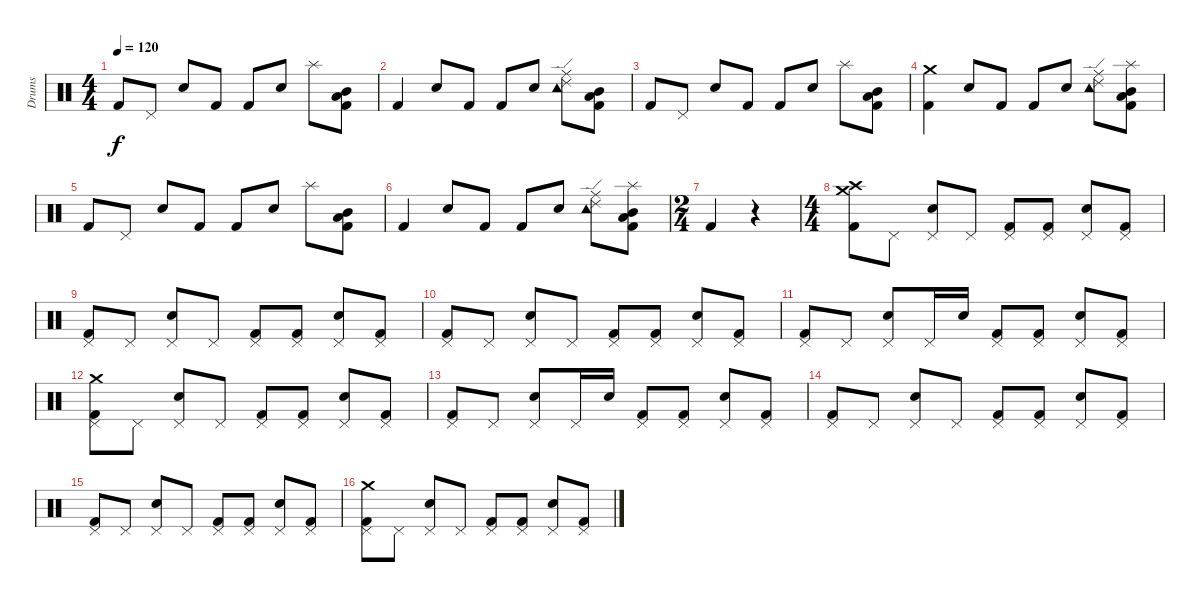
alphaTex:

\track ("Drums" "Drums") {instrument percussion}
\staff {score}
\articulation defaults
\ts (4 4)
\tempo 120
\clef neutral
\ks c "Kick (hit) 2".8{dy f} "Pedal Hi-Hat (hit)".8 "Snare (hit) 2".8 "Kick (hit) 2".8 "Kick (hit) 2".8 "Snare (hit) 2".8 "Splash (hit)".8
("Low Tom (hit)" "Mid Tom (hit)" "Kick (hit) 2").8 |
"Kick (hit) 2".4 "Snare (hit) 2".8 "Kick (hit) 2".8 "Kick (hit) 2".8 "Snare (hit) 2".8 ("Ride (edge) 2" "Tambourine (hit)" "Ride (middle)").8 ("Mid Tom (hit)" "Low Tom (hit)" "Kick (hit) 2").8 |
"Kick (hit) 2".8 "Pedal Hi-Hat (hit)".8 "Snare (hit) 2".8 "Kick (hit) 2".8 "Kick (hit) 2".8 "Snare (hit) 2".8 "Splash (hit)".8 ("Low Tom (hit)" "Mid Tom (hit)" "Kick (hit) 2").8 |
("Kick (hit) 2" "Crash medium (hit)").4 "Snare (hit) 2".8 "Kick (hit) 2".8 "Kick (hit) 2".8 "Snare (hit) 2".8 ("Tambourine (hit)" "Ride (middle)" "Ride (edge) 2").8 ("Kick (hit) 2" "Low Tom (hit)" "Mid Tom (hit)" "Splash (hit)").8 |
"Kick (hit) 2".8 "Pedal Hi-Hat (hit)".8 "Snare (hit) 2".8 "Kick (hit) 2".8 "Kick (hit) 2".8 "Snare (hit) 2".8 "Splash (hit)".8 ("Low Tom (hit)" "Mid Tom (hit)" "Kick (hit) 2").8 |
"Kick (hit) 2".4 "Snare (hit) 2".8 "Kick (hit) 2".8 "Kick (hit) 2".8 "Snare (hit) 2".8 ("Ride (edge) 2" "Tambourine (hit)" "Ride (middle)").8 ("Splash (hit)" "Kick (hit) 2" "Mid Tom (hit)" "Low Tom (hit)").8 |
\ts (2 4)
"Kick (hit) 2".4 r.4 |
\ts (4 4)
("Crash high (hit)" "Crash medium (hit)" "Kick (hit) 2").8 "Pedal Hi-Hat (hit)".8 ("Pedal Hi-Hat (hit)" "Snare (hit) 2").8 "Pedal Hi-Hat (hit)".8 ("Pedal Hi-Hat (hit)" "Kick (hit) 2").8 ("Pedal Hi-Hat (hit)" "Kick (hit) 2").8 ("Pedal Hi-Hat (hit)" "Snare (hit) 2").8 ("Pedal Hi-Hat (hit)" "Kick (hit) 2").8 |
("Pedal Hi-Hat (hit)" "Kick (hit) 2").8 "Pedal Hi-Hat (hit)".8 ("Pedal Hi-Hat (hit)" "Snare (hit) 2").8 "Pedal Hi-Hat (hit)".8 ("Pedal Hi-Hat (hit)" "Kick (hit) 2").8 ("Pedal Hi-Hat (hit)" "Kick (hit) 2").8 ("Pedal Hi-Hat (hit)" "Snare (hit) 2").8 ("Pedal Hi-Hat (hit)" "Kick (hit) 2").8 |
("Pedal Hi-Hat (hit)" "Kick (hit) 2").8 "Pedal Hi-Hat (hit)".8 ("Pedal Hi-Hat (hit)" "Snare (hit) 2").8 "Pedal Hi-Hat (hit)".8 ("Pedal Hi-Hat (hit)" "Kick (hit) 2").8 ("Pedal Hi-Hat (hit)" "Kick (hit) 2").8 ("Pedal Hi-Hat (hit)" "Snare (hit) 2").8 ("Pedal Hi-Hat (hit)" "Kick (hit) 2").8 |
("Pedal Hi-Hat (hit)" "Kick (hit) 2").8 "Pedal Hi-Hat (hit)".8 ("Pedal Hi-Hat (hit)" "Snare (hit) 2").8 "Pedal Hi-Hat (hit)".16 "Snare (hit) 2".16 ("Pedal Hi-Hat (hit)" "Kick (hit) 2").8 ("Pedal Hi-Hat (hit)" "Kick (hit) 2").8 ("Pedal Hi-Hat (hit)" "Snare (hit) 2").8 ("Pedal Hi-Hat (hit)" "Kick (hit) 2").8 |
("Pedal Hi-Hat (hit)" "Crash medium (hit)" "Kick (hit) 2").8 "Pedal Hi-Hat (hit)".8 ("Pedal Hi-Hat (hit)" "Snare (hit) 2").8 "Pedal Hi-Hat (hit)".8 ("Pedal Hi-Hat (hit)" "Kick (hit) 2").8 ("Pedal Hi-Hat (hit)" "Kick (hit) 2").8 ("Pedal Hi-Hat (hit)" "Snare (hit) 2").8 ("Pedal Hi-Hat (hit)" "Kick (hit) 2").8 |
("Pedal Hi-Hat (hit)" "Kick (hit) 2").8 "Pedal Hi-Hat (hit)".8 ("Pedal Hi-Hat (hit)" "Snare (hit) 2").8 "Pedal Hi-Hat (hit)".16 "Snare (hit) 2".16 ("Pedal Hi-Hat (hit)" "Kick (hit) 2").8 ("Pedal Hi-Hat (hit)" "Kick (hit) 2").8 ("Pedal Hi-Hat (hit)" "Snare (hit) 2").8 ("Pedal Hi-Hat (hit)" "Kick (hit) 2").8 |
("Kick (hit) 2" "Pedal Hi-Hat (hit)").8 "Pedal Hi-Hat (hit)".8 ("Snare (hit) 2" "Pedal Hi-Hat (hit)").8 "Pedal Hi-Hat (hit)".8 ("Kick (hit) 2" "Pedal Hi-Hat (hit)").8 ("Kick (hit) 2" "Pedal Hi-Hat (hit)").8 ("Snare (hit) 2" "Pedal Hi-Hat (hit)").8 ("Kick (hit) 2" "Pedal Hi-Hat (hit)").8 |
("Kick (hit) 2" "Pedal Hi-Hat (hit)").8 "Pedal Hi-Hat (hit)".8 ("Snare (hit) 2" "Pedal Hi-Hat (hit)").8 "Pedal Hi-Hat (hit)".8 ("Kick (hit) 2" "Pedal Hi-Hat (hit)").8 ("Kick (hit) 2" "Pedal Hi-Hat (hit)").8 ("Snare (hit) 2" "Pedal Hi-Hat (hit)").8 ("Kick (hit) 2" "Pedal Hi-Hat (hit)").8 |
("Crash medium (hit)" "Pedal Hi-Hat (hit)" "Kick (hit) 2").8 "Pedal Hi-Hat (hit)".8 ("Pedal Hi-Hat (hit)" "Snare (hit) 2").8 "Pedal Hi-Hat (hit)".8 ("Pedal Hi-Hat (hit)" "Kick (hit) 2").8 ("Pedal Hi-Hat (hit)" "Kick (hit) 2").8 ("Pedal Hi-Hat (hit)" "Snare (hit) 2").8 ("Pedal Hi-Hat (hit)" "Kick (hit) 2").8
